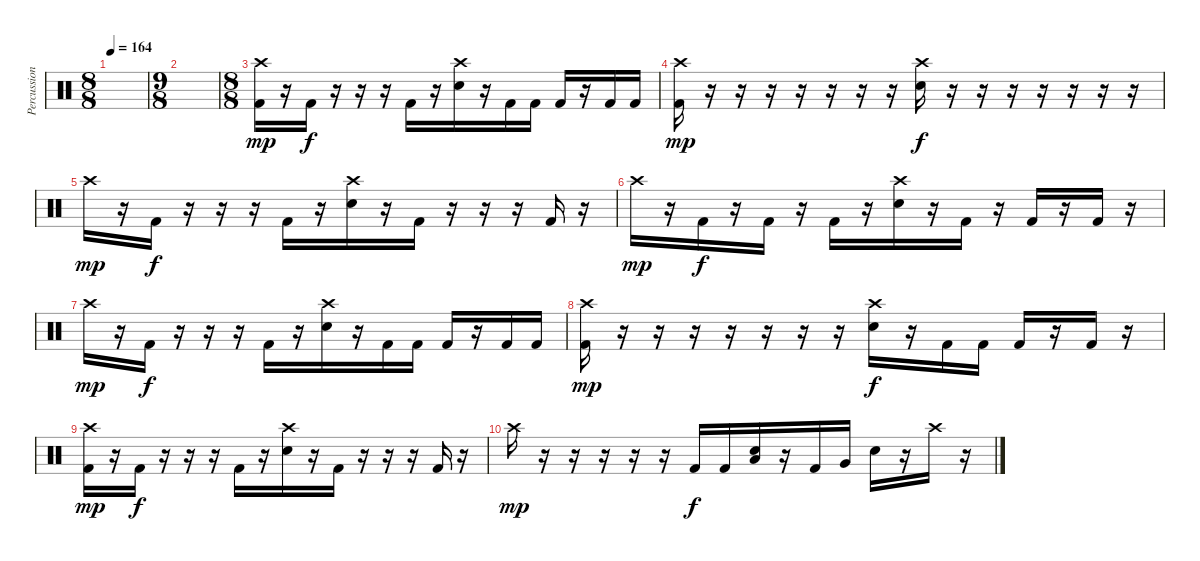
\track ("Percussion" "Percussion") {instrument percussion}
\staff {score}
\articulation defaults
\ts (8 8)
\tempo 164
\clef neutral
\ks c
|
\ts (9 8)
|
\ts (8 8)
("Crash high (hit)" "Kick (hit) 2").16{dy mp} r.16 "Kick (hit) 2".16{dy f} r.16 r.16 r.16 "Kick (hit) 2".16 r.16 ("Crash high (hit)" "Snare (hit) 2").16 r.16 "Kick (hit) 2".16 "Kick (hit) 2".16 "Kick (hit) 2".16 r.16 "Kick (hit) 2".16 "Kick (hit) 2".16 |
("Crash high (hit)" "Kick (hit) 2").16{dy mp} r.16 r.16 r.16 r.16 r.16 r.16 r.16 ("Crash high (hit)" "Snare (hit) 2").16{dy f} r.16 r.16 r.16 r.16 r.16 r.16 r.16 |
"Crash high (hit)".16{dy mp} r.16 "Kick (hit) 2".16{dy f} r.16 r.16 r.16 "Kick (hit) 2".16 r.16 ("Crash high (hit)" "Snare (hit) 2").16 r.16 "Kick (hit) 2".16 r.16 r.16 r.16 "Kick (hit) 2".16 r.16 |
"Crash high (hit)".16{dy mp} r.16 "Kick (hit) 2".16{dy f} r.16 "Kick (hit) 2".16 r.16 "Kick (hit) 2".16 r.16 ("Crash high (hit)" "Snare (hit) 2").16 r.16 "Kick (hit) 2".16 r.16 "Kick (hit) 2".16 r.16 "Kick (hit) 2".16 r.16 |
"Crash high (hit)".16{dy mp} r.16 "Kick (hit) 2".16{dy f} r.16 r.16 r.16 "Kick (hit) 2".16 r.16 ("Crash high (hit)" "Snare (hit) 2").16 r.16 "Kick (hit) 2".16 "Kick (hit) 2".16 "Kick (hit) 2".16 r.16 "Kick (hit) 2".16 "Kick (hit) 2".16 |
("Crash high (hit)" "Kick (hit) 2").16{dy mp} r.16 r.16 r.16 r.16 r.16 r.16 r.16 ("Crash high (hit)" "Snare (hit) 2").16{dy f} r.16 "Kick (hit) 2".16 "Kick (hit) 2".16 "Kick (hit) 2".16 r.16 "Kick (hit) 2".16 r.16 |
("Crash high (hit)" "Kick (hit) 2").16{dy mp} r.16 "Kick (hit) 2".16{dy f} r.16 r.16 r.16 "Kick (hit) 2".16 r.16 ("Crash high (hit)" "Snare (hit) 2").16 r.16 "Kick (hit) 2".16 r.16 r.16 r.16 "Kick (hit) 2".16 r.16 |
"Crash high (hit)".16{dy mp} r.16 r.16 r.16 r.16 r.16 "Kick (hit) 2".16{dy f} "Kick (hit) 2".16 ("Low Floor Tom (hit)" "Snare (hit) 2").16 r.16 "Kick (hit) 2".16 "Very Low Tom (hit)".16 "Snare (hit) 2".16 r.16 "Crash high (hit)".16 r.16
